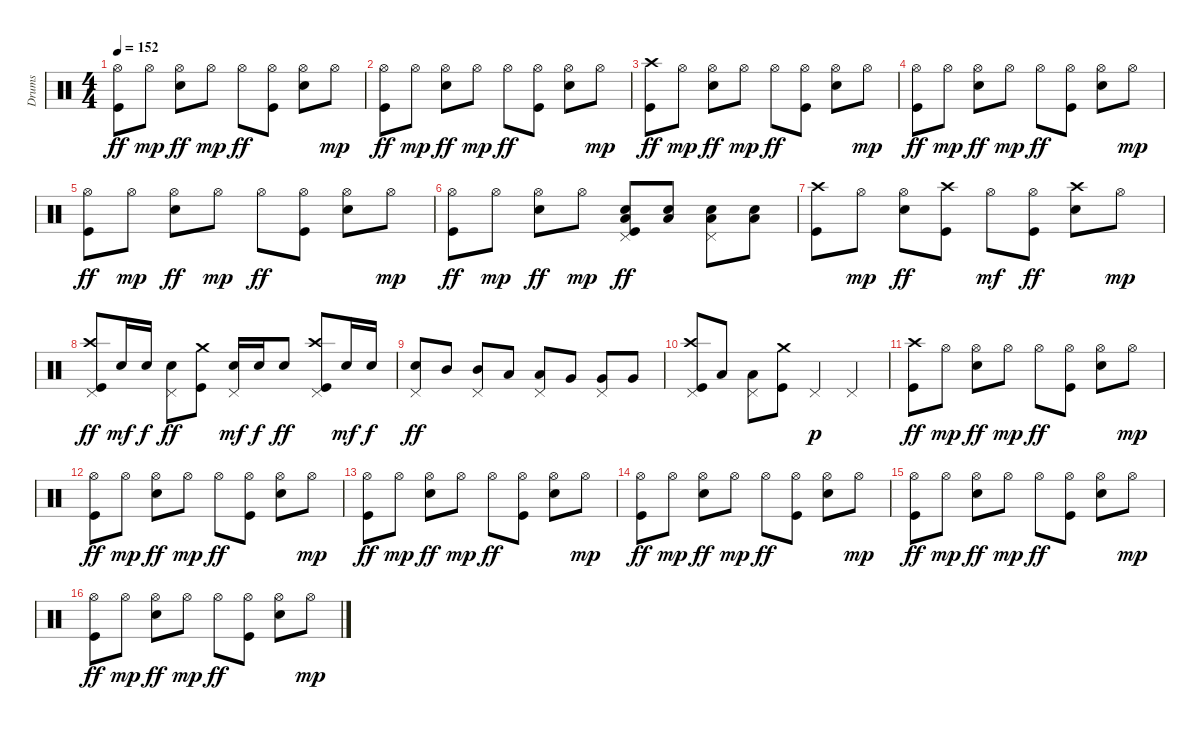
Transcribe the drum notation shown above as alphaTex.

\track ("Drums" "Drums") {instrument percussion}
\staff {score}
\articulation defaults
\ts (4 4)
\tempo 152
\clef neutral
\ks c
("Hi-Hat (open)" "Kick (hit)").8{dy ff} "Hi-Hat (open)".8{dy mp} ("Hi-Hat (open)" "Snare (hit) 2").8{dy ff} "Hi-Hat (open)".8{dy mp} "Hi-Hat (open)".8{dy ff} ("Hi-Hat (open)" "Kick (hit)").8 ("Hi-Hat (open)" "Snare (hit) 2").8 "Hi-Hat (open)".8{dy mp} |
("Hi-Hat (open)" "Kick (hit)").8{dy ff} "Hi-Hat (open)".8{dy mp} ("Hi-Hat (open)" "Snare (hit) 2").8{dy ff} "Hi-Hat (open)".8{dy mp} "Hi-Hat (open)".8{dy ff} ("Hi-Hat (open)" "Kick (hit)").8 ("Hi-Hat (open)" "Snare (hit) 2").8 "Hi-Hat (open)".8{dy mp} |
("Crash high (hit)" "Kick (hit)").8{dy ff} "Hi-Hat (open)".8{dy mp} ("Hi-Hat (open)" "Snare (hit) 2").8{dy ff} "Hi-Hat (open)".8{dy mp} "Hi-Hat (open)".8{dy ff} ("Hi-Hat (open)" "Kick (hit)").8 ("Hi-Hat (open)" "Snare (hit) 2").8 "Hi-Hat (open)".8{dy mp} |
("Hi-Hat (open)" "Kick (hit)").8{dy ff} "Hi-Hat (open)".8{dy mp} ("Hi-Hat (open)" "Snare (hit) 2").8{dy ff} "Hi-Hat (open)".8{dy mp} "Hi-Hat (open)".8{dy ff} ("Hi-Hat (open)" "Kick (hit)").8 ("Hi-Hat (open)" "Snare (hit) 2").8 "Hi-Hat (open)".8{dy mp} |
("Hi-Hat (open)" "Kick (hit)").8{dy ff} "Hi-Hat (open)".8{dy mp} ("Hi-Hat (open)" "Snare (hit) 2").8{dy ff} "Hi-Hat (open)".8{dy mp} "Hi-Hat (open)".8{dy ff} ("Hi-Hat (open)" "Kick (hit)").8 ("Hi-Hat (open)" "Snare (hit) 2").8 "Hi-Hat (open)".8{dy mp} |
("Hi-Hat (open)" "Kick (hit)").8{dy ff} "Hi-Hat (open)".8{dy mp} ("Hi-Hat (open)" "Snare (hit) 2").8{dy ff} "Hi-Hat (open)".8{dy mp} ("Pedal Hi-Hat (hit)" "Low Tom (hit)" "Snare (hit) 2" "Kick (hit)").8{dy ff} ("Low Tom (hit)" "Snare (hit) 2").8 ("Pedal Hi-Hat (hit)" "Low Tom (hit)" "Snare (hit) 2").8 ("Low Tom (hit)" "Snare (hit) 2").8 |
("Crash high (hit)" "Kick (hit)").8 "Hi-Hat (open)".8{dy mp} ("Hi-Hat (open)" "Snare (hit) 2").8{dy ff} ("Crash high (hit)" "Kick (hit)").8 "Hi-Hat (open)".8{dy mf} ("Hi-Hat (open)" "Kick (hit)").8{dy ff} ("Crash high (hit)" "Snare (hit) 2").8 "Hi-Hat (open)".8{dy mp} |
("Crash high (hit)" "Pedal Hi-Hat (hit)" "Kick (hit)").8{dy ff} "Snare (hit) 2".16{dy mf} "Snare (hit) 2".16{dy f} ("Pedal Hi-Hat (hit)" "Snare (hit) 2").8{dy ff} ("Crash medium (hit)" "Kick (hit)").8 ("Pedal Hi-Hat (hit)" "Snare (hit) 2").16{dy mf} "Snare (hit) 2".16{dy f} "Snare (hit) 2".8{dy ff} ("Crash high (hit)" "Pedal Hi-Hat (hit)" "Kick (hit)").8 "Snare (hit) 2".16{dy mf} "Snare (hit) 2".16{dy f} |
("Pedal Hi-Hat (hit)" "Snare (hit) 2").8{dy ff} "Mid Tom (hit)".8 ("Pedal Hi-Hat (hit)" "Mid Tom (hit)").8 "Low Tom (hit)".8 ("Pedal Hi-Hat (hit)" "Low Tom (hit)").8 "Very Low Tom (hit)".8 ("Pedal Hi-Hat (hit)" "Very Low Tom (hit)").8 "Very Low Tom (hit)".8 |
("Crash high (hit)" "Pedal Hi-Hat (hit)" "Kick (hit)").8 "Low Tom (hit)".8 ("Pedal Hi-Hat (hit)" "Low Tom (hit)").8 ("Crash medium (hit)" "Kick (hit)").8 "Pedal Hi-Hat (hit)".4{dy p} "Pedal Hi-Hat (hit)".4 |
("Crash high (hit)" "Kick (hit)").8{dy ff} "Hi-Hat (open)".8{dy mp} ("Hi-Hat (open)" "Snare (hit) 2").8{dy ff} "Hi-Hat (open)".8{dy mp} "Hi-Hat (open)".8{dy ff} ("Hi-Hat (open)" "Kick (hit)").8 ("Hi-Hat (open)" "Snare (hit) 2").8 "Hi-Hat (open)".8{dy mp} |
("Hi-Hat (open)" "Kick (hit)").8{dy ff} "Hi-Hat (open)".8{dy mp} ("Hi-Hat (open)" "Snare (hit) 2").8{dy ff} "Hi-Hat (open)".8{dy mp} "Hi-Hat (open)".8{dy ff} ("Hi-Hat (open)" "Kick (hit)").8 ("Hi-Hat (open)" "Snare (hit) 2").8 "Hi-Hat (open)".8{dy mp} |
("Hi-Hat (open)" "Kick (hit)").8{dy ff} "Hi-Hat (open)".8{dy mp} ("Hi-Hat (open)" "Snare (hit) 2").8{dy ff} "Hi-Hat (open)".8{dy mp} "Hi-Hat (open)".8{dy ff} ("Hi-Hat (open)" "Kick (hit)").8 ("Hi-Hat (open)" "Snare (hit) 2").8 "Hi-Hat (open)".8{dy mp} |
("Hi-Hat (open)" "Kick (hit)").8{dy ff} "Hi-Hat (open)".8{dy mp} ("Hi-Hat (open)" "Snare (hit) 2").8{dy ff} "Hi-Hat (open)".8{dy mp} "Hi-Hat (open)".8{dy ff} ("Hi-Hat (open)" "Kick (hit)").8 ("Hi-Hat (open)" "Snare (hit) 2").8 "Hi-Hat (open)".8{dy mp} |
("Hi-Hat (open)" "Kick (hit)").8{dy ff} "Hi-Hat (open)".8{dy mp} ("Hi-Hat (open)" "Snare (hit) 2").8{dy ff} "Hi-Hat (open)".8{dy mp} "Hi-Hat (open)".8{dy ff} ("Hi-Hat (open)" "Kick (hit)").8 ("Hi-Hat (open)" "Snare (hit) 2").8 "Hi-Hat (open)".8{dy mp} |
("Hi-Hat (open)" "Kick (hit)").8{dy ff} "Hi-Hat (open)".8{dy mp} ("Hi-Hat (open)" "Snare (hit) 2").8{dy ff} "Hi-Hat (open)".8{dy mp} "Hi-Hat (open)".8{dy ff} ("Hi-Hat (open)" "Kick (hit)").8 ("Hi-Hat (open)" "Snare (hit) 2").8 "Hi-Hat (open)".8{dy mp}
